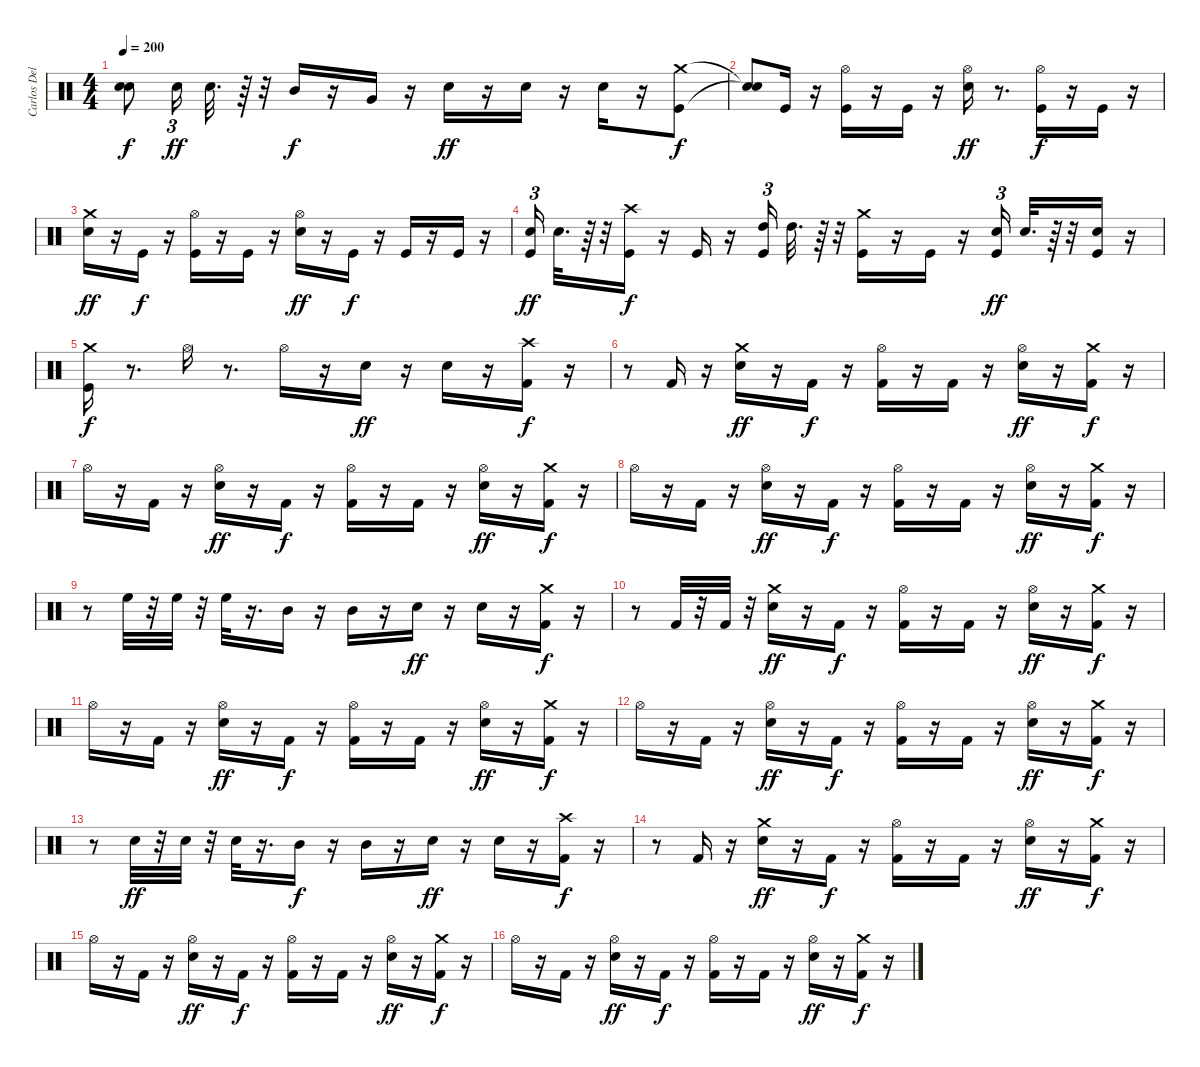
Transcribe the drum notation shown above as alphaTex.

\track ("Carlos Delgado" "Carlos Del") {instrument percussion}
\staff {score}
\articulation defaults
\ts (4 4)
\tempo 200
\clef neutral
\ks c
("Snare (hit)"{t} "Snare (hit)"{t}).8{dy f} "Electric Snare (hit)".16{tu (3 2) dy ff} "Electric Snare (hit)".32{d} r.64 r.32 "Mid Tom (hit)".16{dy f} r.16 "Very Low Tom (hit)".16 r.16 "Electric Snare (hit)".16{dy ff} r.16 "Electric Snare (hit)".16 r.16 "Electric Snare (hit)".16 r.16 ("Kick (hit)" "Crash medium (hit)").8{dy f} |
("Snare (hit)"{t} "Snare (hit)"{t}).8 "Kick (hit)".16 r.16 ("Kick (hit)" "Hi-Hat (open)").16 r.16 "Kick (hit)".16 r.16 ("Electric Snare (hit)" "Hi-Hat (open)").16{dy ff} r.8{d} ("Hi-Hat (open)" "Kick (hit)").16{dy f} r.16 "Kick (hit)".16 r.16 |
("Crash medium (hit)" "Electric Snare (hit)").16{dy ff} r.16 "Kick (hit)".16{dy f} r.16 ("Hi-Hat (open)" "Kick (hit)").16 r.16 "Kick (hit)".16 r.16 ("Electric Snare (hit)" "Hi-Hat (open)").16{dy ff} r.16 "Kick (hit)".16{dy f} r.16 "Kick (hit)".16 r.16 "Kick (hit)".16 r.16 |
("Kick (hit)" "Electric Snare (hit)").16{tu (3 2) dy ff} "Electric Snare (hit)".32{d} r.64 r.32 ("Crash high (hit)" "Kick (hit)").16{dy f} r.16 "Kick (hit)".16 r.16 ("Kick (hit)" "High Tom (hit)").16{tu (3 2)} "High Tom (hit)".32{d} r.64 r.32 ("Crash medium (hit)" "Kick (hit)").16 r.16 "Kick (hit)".16 r.16 ("Electric Snare (hit)" "Kick (hit)").16{tu (3 2) dy ff} "Electric Snare (hit)".32{d} r.64 r.32 ("Kick (hit)" "Electric Snare (hit)").16 r.16 |
("Crash medium (hit)" "Kick (hit)").16{dy f} r.8{d} "Hi-Hat (open)".16 r.8{d} "Hi-Hat (open)".16 r.16 "Electric Snare (hit)".16{dy ff} r.16 "Electric Snare (hit)".16 r.16 ("Kick (hit) 2" "Crash high (hit)").16{dy f} r.16 |
r.8 "Kick (hit) 2".16 r.16 ("Electric Snare (hit)" "Crash medium (hit)").16{dy ff} r.16 "Kick (hit) 2".16{dy f} r.16 ("Kick (hit) 2" "Hi-Hat (open)").16 r.16 "Kick (hit) 2".16 r.16 ("Hi-Hat (open)" "Electric Snare (hit)").16{dy ff} r.16 ("Kick (hit) 2" "Crash medium (hit)").16{dy f} r.16 |
"Hi-Hat (open)".16 r.16 "Kick (hit) 2".16 r.16 ("Electric Snare (hit)" "Hi-Hat (open)").16{dy ff} r.16 "Kick (hit) 2".16{dy f} r.16 ("Kick (hit) 2" "Hi-Hat (open)").16 r.16 "Kick (hit) 2".16 r.16 ("Hi-Hat (open)" "Electric Snare (hit)").16{dy ff} r.16 ("Kick (hit) 2" "Crash medium (hit)").16{dy f} r.16 |
"Hi-Hat (open)".16 r.16 "Kick (hit) 2".16 r.16 ("Hi-Hat (open)" "Electric Snare (hit)").16{dy ff} r.16 "Kick (hit) 2".16{dy f} r.16 ("Kick (hit) 2" "Hi-Hat (open)").16 r.16 "Kick (hit) 2".16 r.16 ("Hi-Hat (open)" "Electric Snare (hit)").16{dy ff} r.16 ("Kick (hit) 2" "Crash medium (hit)").16{dy f} r.16 |
r.8 "High Floor Tom (hit)".32 r.32 "High Floor Tom (hit)".32 r.32 "High Floor Tom (hit)".32 r.16{d} "Mid Tom (hit)".16 r.16 "Mid Tom (hit)".16 r.16 "Electric Snare (hit)".16{dy ff} r.16 "Electric Snare (hit)".16 r.16 ("Crash medium (hit)" "Kick (hit) 2").16{dy f} r.16 |
r.8 "Kick (hit) 2".32 r.32 "Kick (hit) 2".32 r.32 ("Crash medium (hit)" "Electric Snare (hit)").16{dy ff} r.16 "Kick (hit) 2".16{dy f} r.16 ("Kick (hit) 2" "Hi-Hat (open)").16 r.16 "Kick (hit) 2".16 r.16 ("Hi-Hat (open)" "Electric Snare (hit)").16{dy ff} r.16 ("Crash medium (hit)" "Kick (hit) 2").16{dy f} r.16 |
"Hi-Hat (open)".16 r.16 "Kick (hit) 2".16 r.16 ("Hi-Hat (open)" "Electric Snare (hit)").16{dy ff} r.16 "Kick (hit) 2".16{dy f} r.16 ("Kick (hit) 2" "Hi-Hat (open)").16 r.16 "Kick (hit) 2".16 r.16 ("Hi-Hat (open)" "Electric Snare (hit)").16{dy ff} r.16 ("Kick (hit) 2" "Crash medium (hit)").16{dy f} r.16 |
"Hi-Hat (open)".16 r.16 "Kick (hit) 2".16 r.16 ("Hi-Hat (open)" "Electric Snare (hit)").16{dy ff} r.16 "Kick (hit) 2".16{dy f} r.16 ("Kick (hit) 2" "Hi-Hat (open)").16 r.16 "Kick (hit) 2".16 r.16 ("Hi-Hat (open)" "Electric Snare (hit)").16{dy ff} r.16 ("Kick (hit) 2" "Crash medium (hit)").16{dy f} r.16 |
r.8 "Electric Snare (hit)".32{dy ff} r.32 "Electric Snare (hit)".32 r.32 "Electric Snare (hit)".32 r.16{d} "Mid Tom (hit)".16{dy f} r.16 "Mid Tom (hit)".16 r.16 "Electric Snare (hit)".16{dy ff} r.16 "Electric Snare (hit)".16 r.16 ("Crash high (hit)" "Kick (hit) 2").16{dy f} r.16 |
r.8 "Kick (hit) 2".16 r.16 ("Crash medium (hit)" "Electric Snare (hit)").16{dy ff} r.16 "Kick (hit) 2".16{dy f} r.16 ("Kick (hit) 2" "Hi-Hat (open)").16 r.16 "Kick (hit) 2".16 r.16 ("Hi-Hat (open)" "Electric Snare (hit)").16{dy ff} r.16 ("Kick (hit) 2" "Crash medium (hit)").16{dy f} r.16 |
"Hi-Hat (open)".16 r.16 "Kick (hit) 2".16 r.16 ("Hi-Hat (open)" "Electric Snare (hit)").16{dy ff} r.16 "Kick (hit) 2".16{dy f} r.16 ("Hi-Hat (open)" "Kick (hit) 2").16 r.16 "Kick (hit) 2".16 r.16 ("Hi-Hat (open)" "Electric Snare (hit)").16{dy ff} r.16 ("Kick (hit) 2" "Crash medium (hit)").16{dy f} r.16 |
"Hi-Hat (open)".16 r.16 "Kick (hit) 2".16 r.16 ("Electric Snare (hit)" "Hi-Hat (open)").16{dy ff} r.16 "Kick (hit) 2".16{dy f} r.16 ("Kick (hit) 2" "Hi-Hat (open)").16 r.16 "Kick (hit) 2".16 r.16 ("Electric Snare (hit)" "Hi-Hat (open)").16{dy ff} r.16 ("Kick (hit) 2" "Crash medium (hit)").16{dy f} r.16
